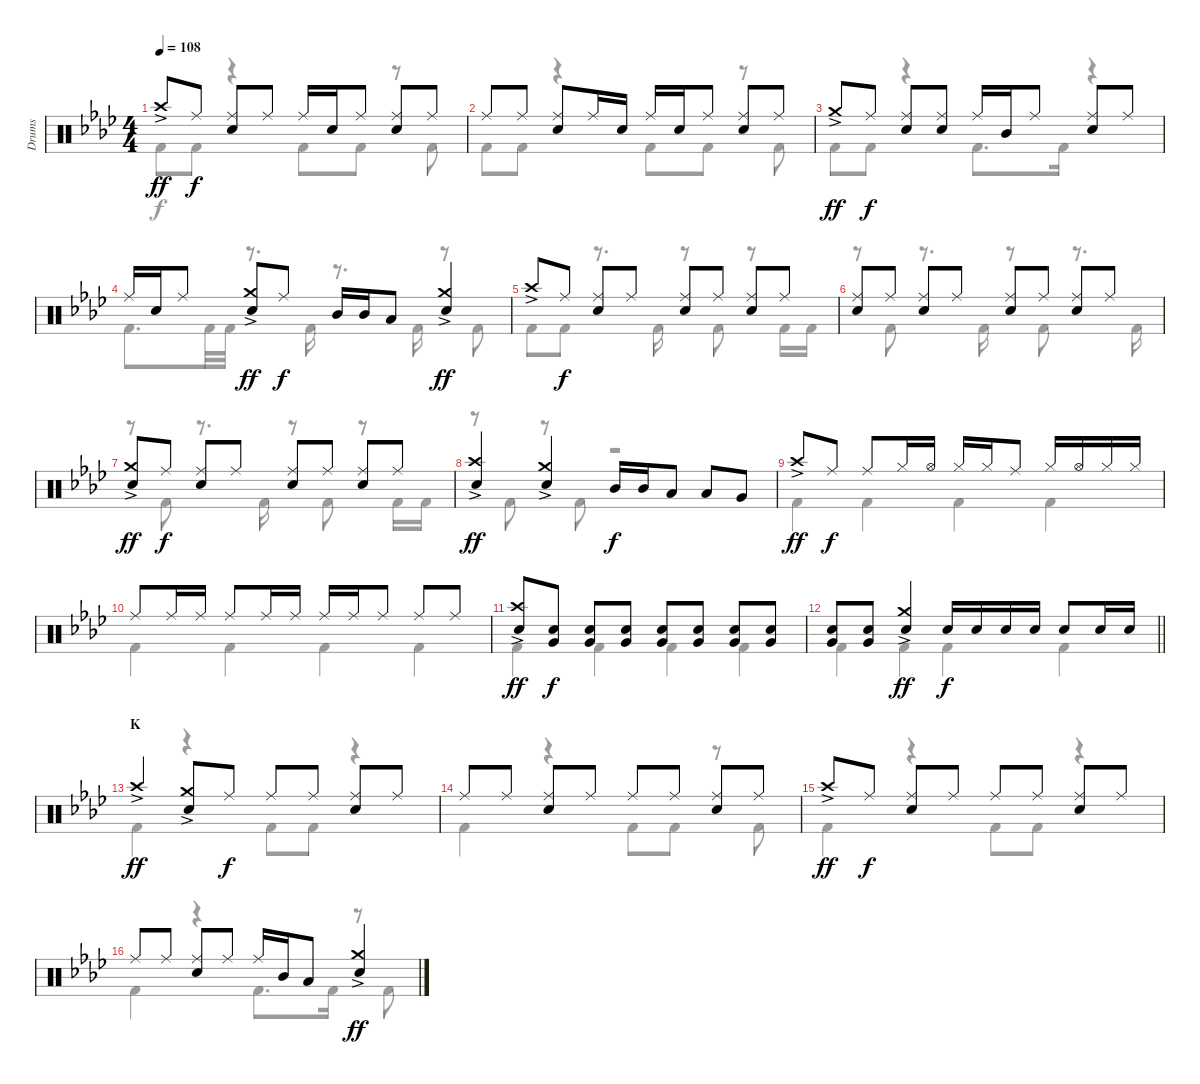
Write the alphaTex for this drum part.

\track ("Drums" "Drums") {instrument percussion}
\staff {score}
\articulation defaults
\voice
\ts (4 4)
\tempo 108
\clef neutral
\ks ab "Crash high (hit)"{ac}.8{dy ff} "Ride (middle)".8{dy f}
("Ride (middle)" "Snare (hit) 2").8 "Ride (middle)".8 "Ride (middle)".16 "Snare (hit) 2".16 "Ride (middle)".8 ("Ride (middle)" "Snare (hit) 2").8 "Ride (middle)".8 |
"Ride (middle)".8 "Ride (middle)".8 ("Ride (middle)" "Snare (hit) 2").8 "Ride (middle)".16 "Snare (hit) 2".16 "Ride (middle)".16 "Snare (hit) 2".16 "Ride (middle)".8 ("Ride (middle)" "Snare (hit) 2").8 "Ride (middle)".8 |
"Crash medium (hit)"{ac}.8{dy ff} "Ride (middle)".8{dy f} ("Ride (middle)" "Snare (hit) 2").8 ("Ride (middle)" "Snare (hit) 2").8 "Ride (middle)".16 "Mid Tom (hit)".16 "Ride (middle)".8 ("Ride (middle)" "Snare (hit) 2").8 "Ride (middle)".8 |
"Ride (middle)".16 "Snare (hit) 2".16 "Ride (middle)".8 ("Crash medium (hit)"{ac} "Snare (hit) 2").8{dy ff} "Ride (middle)".8{dy f} "Mid Tom (hit)".16 "Mid Tom (hit)".16 "Low Tom (hit)".8 ("Crash medium (hit)"{ac} "Snare (hit) 2").4{dy ff} |
"Crash high (hit)"{ac}.8 "Ride (middle)".8{dy f} ("Ride (middle)" "Snare (hit) 2").8 "Ride (middle)".8 ("Ride (middle)" "Snare (hit) 2").8 "Ride (middle)".8 ("Ride (middle)" "Snare (hit) 2").8 "Ride (middle)".8 |
("Ride (middle)" "Snare (hit) 2").8 "Ride (middle)".8 ("Ride (middle)" "Snare (hit) 2").8 "Ride (middle)".8 ("Ride (middle)" "Snare (hit) 2").8 "Ride (middle)".8 ("Ride (middle)" "Snare (hit) 2").8 "Ride (middle)".8 |
("Crash medium (hit)"{ac} "Snare (hit) 2").8{dy ff} "Ride (middle)".8{dy f} ("Ride (middle)" "Snare (hit) 2").8 "Ride (middle)".8 ("Ride (middle)" "Snare (hit) 2").8 "Ride (middle)".8 ("Ride (middle)" "Snare (hit) 2").8 "Ride (middle)".8 |
("Crash high (hit)"{ac} "Snare (hit) 2").4{dy ff} ("Crash medium (hit)"{ac} "Snare (hit) 2").4 "Mid Tom (hit)".16{dy f} "Mid Tom (hit)".16 "Low Tom (hit)".8 "Low Tom (hit)".8 "Very Low Tom (hit)".8 |
"Crash high (hit)"{ac}.8{dy ff} "Ride (middle)".8{dy f} "Ride (middle)".8 "Hi-Hat (closed)".16 "Hi-Hat (open)".16 "Hi-Hat (closed)".16 "Hi-Hat (closed)".16 "Ride (middle)".8 "Hi-Hat (closed)".16 "Hi-Hat (open)".16 "Hi-Hat (closed)".16 "Hi-Hat (closed)".16 |
"Ride (middle)".8 "Ride (middle)".16 "Ride (middle)".16 "Ride (middle)".8 "Ride (middle)".16 "Ride (middle)".16 "Ride (middle)".16 "Ride (middle)".16 "Ride (middle)".8 "Ride (middle)".8 "Ride (middle)".8 |
("Crash high (hit)"{ac} "Snare (hit) 2").8{dy ff} ("Very Low Tom (hit)" "Snare (hit) 2").8{dy f} ("Very Low Tom (hit)" "Snare (hit) 2").8 ("Very Low Tom (hit)" "Snare (hit) 2").8 ("Very Low Tom (hit)" "Snare (hit) 2").8 ("Very Low Tom (hit)" "Snare (hit) 2").8 ("Very Low Tom (hit)" "Snare (hit) 2").8 ("Very Low Tom (hit)" "Snare (hit) 2").8 |
\barLineRight lightlight
("Very Low Tom (hit)" "Snare (hit) 2").8 ("Very Low Tom (hit)" "Snare (hit) 2").8 ("Crash medium (hit)"{ac} "Snare (hit) 2").4{dy ff} "Snare (hit) 2".16{dy f} "Snare (hit) 2".16 "Snare (hit) 2".16 "Snare (hit) 2".16 "Snare (hit) 2".8 "Snare (hit) 2".16 "Snare (hit) 2".16 |
\section ("" "K")
"Crash high (hit)"{ac}.4{dy ff} ("Crash medium (hit)"{ac} "Snare (hit) 2").8 "Ride (middle)".8{dy f} "Ride (middle)".8 "Ride (middle)".8 ("Ride (middle)" "Snare (hit) 2").8 "Ride (middle)".8 |
"Ride (middle)".8 "Ride (middle)".8 ("Ride (middle)" "Snare (hit) 2").8 "Ride (middle)".8 "Ride (middle)".8 "Ride (middle)".8 ("Ride (middle)" "Snare (hit) 2").8 "Ride (middle)".8 |
"Crash high (hit)"{ac}.8{dy ff} "Ride (middle)".8{dy f} ("Ride (middle)" "Snare (hit) 2").8 "Ride (middle)".8 "Ride (middle)".8 "Ride (middle)".8 ("Ride (middle)" "Snare (hit) 2").8 "Ride (middle)".8 |
"Ride (middle)".8 "Ride (middle)".8 ("Ride (middle)" "Snare (hit) 2").8 "Ride (middle)".8 "Ride (middle)".16 "Mid Tom (hit)".16 "Low Tom (hit)".8 ("Crash medium (hit)"{ac} "Snare (hit) 2").4{dy ff}
\voice
\clef neutral
\ottava regular
\simile none
\ks ab "Kick (hit) 2".8{dy f} "Kick (hit) 2".8
r.4 "Kick (hit) 2".8 "Kick (hit) 2".8 r.8 "Kick (hit) 2".8 |
"Kick (hit) 2".8 "Kick (hit) 2".8 r.4 "Kick (hit) 2".8 "Kick (hit) 2".8 r.8 "Kick (hit) 2".8 |
"Kick (hit) 2".8 "Kick (hit) 2".8 r.4 "Kick (hit) 2".8{d} "Kick (hit) 2".16 r.4 |
"Kick (hit) 2".8{d} "Kick (hit) 2".32 "Kick (hit) 2".32 r.8{d} "Kick (hit) 2".16 r.8{d} "Kick (hit) 2".16 r.8 "Kick (hit) 2".8 |
"Kick (hit) 2".8 "Kick (hit) 2".8 r.8{d} "Kick (hit) 2".16 r.8 "Kick (hit) 2".8 r.8 "Kick (hit) 2".16 "Kick (hit) 2".16 |
r.8 "Kick (hit) 2".8 r.8{d} "Kick (hit) 2".16 r.8 "Kick (hit) 2".8 r.8{d} "Kick (hit) 2".16 |
r.8 "Kick (hit) 2".8 r.8{d} "Kick (hit) 2".16 r.8 "Kick (hit) 2".8 r.8 "Kick (hit) 2".16 "Kick (hit) 2".16 |
r.8 "Kick (hit) 2".8 r.8 "Kick (hit) 2".8 r.2 |
"Kick (hit) 2".4 "Kick (hit) 2".4 "Kick (hit) 2".4 "Kick (hit) 2".4 |
"Kick (hit) 2".4 "Kick (hit) 2".4 "Kick (hit) 2".4 "Kick (hit) 2".4 |
"Kick (hit) 2".4 "Kick (hit) 2".4 "Kick (hit) 2".4 "Kick (hit) 2".4 |
\barLineRight lightlight "Kick (hit) 2".4 "Kick (hit) 2".4 "Kick (hit) 2".4 "Kick (hit) 2".4
|
"Kick (hit) 2".4 r.4 "Kick (hit) 2".8 "Kick (hit) 2".8 r.4 |
"Kick (hit) 2".4 r.4 "Kick (hit) 2".8 "Kick (hit) 2".8 r.8 "Kick (hit) 2".8 |
"Kick (hit) 2".4 r.4 "Kick (hit) 2".8 "Kick (hit) 2".8 r.4 |
"Kick (hit) 2".4 r.4 "Kick (hit) 2".8{d} "Kick (hit) 2".16 r.8 "Kick (hit) 2".8
